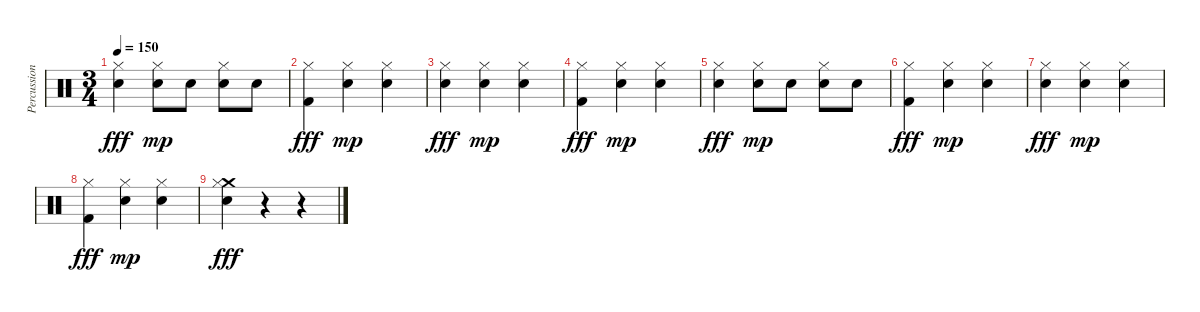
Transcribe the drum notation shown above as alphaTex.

\track ("Percussion" "Percussion") {instrument percussion}
\staff {score}
\articulation defaults
\ts (3 4)
\tempo 150
\clef neutral
\ks c
("Hi-Hat (closed)" "Electric Snare (hit)").4{dy fff} ("Hi-Hat (closed)" "Electric Snare (hit)").8{dy mp} "Electric Snare (hit)".8 ("Hi-Hat (closed)" "Electric Snare (hit)").8 "Electric Snare (hit)".8 |
("Hi-Hat (closed)" "Kick (hit) 2").4{dy fff} ("Hi-Hat (closed)" "Electric Snare (hit)").4{dy mp} ("Hi-Hat (closed)" "Electric Snare (hit)").4 |
("Hi-Hat (closed)" "Electric Snare (hit)").4{dy fff} ("Hi-Hat (closed)" "Electric Snare (hit)").4{dy mp} ("Hi-Hat (closed)" "Electric Snare (hit)").4 |
("Hi-Hat (closed)" "Kick (hit) 2").4{dy fff} ("Hi-Hat (closed)" "Electric Snare (hit)").4{dy mp} ("Hi-Hat (closed)" "Electric Snare (hit)").4 |
("Hi-Hat (closed)" "Electric Snare (hit)").4{dy fff} ("Hi-Hat (closed)" "Electric Snare (hit)").8{dy mp} "Electric Snare (hit)".8 ("Hi-Hat (closed)" "Electric Snare (hit)").8 "Electric Snare (hit)".8 |
("Hi-Hat (closed)" "Kick (hit) 2").4{dy fff} ("Hi-Hat (closed)" "Electric Snare (hit)").4{dy mp} ("Hi-Hat (closed)" "Electric Snare (hit)").4 |
("Hi-Hat (closed)" "Electric Snare (hit)").4{dy fff} ("Hi-Hat (closed)" "Electric Snare (hit)").4{dy mp} ("Hi-Hat (closed)" "Electric Snare (hit)").4 |
("Hi-Hat (closed)" "Kick (hit) 2").4{dy fff} ("Hi-Hat (closed)" "Electric Snare (hit)").4{dy mp} ("Hi-Hat (closed)" "Electric Snare (hit)").4 |
("Crash medium (hit)" "Hi-Hat (closed)" "Electric Snare (hit)").4{dy fff} r.4 r.4
